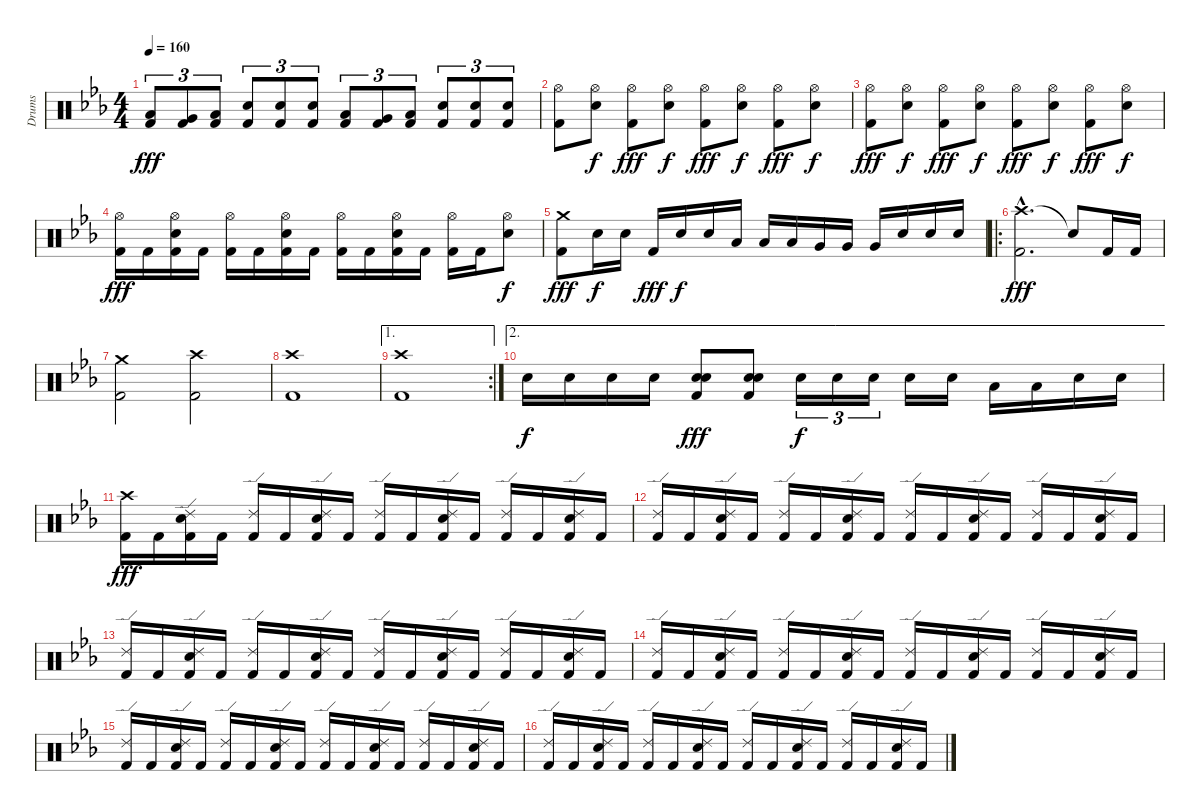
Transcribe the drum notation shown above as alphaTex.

\track ("Drums" "Drums") {instrument percussion}
\staff {score}
\articulation defaults
\ts (4 4)
\tempo 160
\clef neutral
\ks eb
("Low Tom (hit)" "Kick (hit) 2").8{tu (3 2) dy fff} ("Very Low Tom (hit)" "Kick (hit) 2").8{tu (3 2)} ("Low Floor Tom (hit)" "Kick (hit) 2").8{tu (3 2)} ("Electric Snare (hit)" "Kick (hit) 2").8{tu (3 2)} ("Electric Snare (hit)" "Kick (hit) 2").8{tu (3 2)} ("Electric Snare (hit)" "Kick (hit) 2").8{tu (3 2)} ("Low Tom (hit)" "Kick (hit) 2").8{tu (3 2)} ("Very Low Tom (hit)" "Kick (hit) 2").8{tu (3 2)} ("Low Floor Tom (hit)" "Kick (hit) 2").8{tu (3 2)} ("Electric Snare (hit)" "Kick (hit) 2").8{tu (3 2)} ("Electric Snare (hit)" "Kick (hit) 2").8{tu (3 2)} ("Electric Snare (hit)" "Kick (hit) 2").8{tu (3 2)} |
("Hi-Hat (open)" "Kick (hit) 2").8 ("Hi-Hat (open)" "Electric Snare (hit)").8{dy f} ("Hi-Hat (open)" "Kick (hit) 2").8{dy fff} ("Hi-Hat (open)" "Electric Snare (hit)").8{dy f} ("Hi-Hat (open)" "Kick (hit) 2").8{dy fff} ("Hi-Hat (open)" "Electric Snare (hit)").8{dy f} ("Hi-Hat (open)" "Kick (hit) 2").8{dy fff} ("Hi-Hat (open)" "Electric Snare (hit)").8{dy f} |
("Hi-Hat (open)" "Kick (hit) 2").8{dy fff} ("Hi-Hat (open)" "Electric Snare (hit)").8{dy f} ("Hi-Hat (open)" "Kick (hit) 2").8{dy fff} ("Hi-Hat (open)" "Electric Snare (hit)").8{dy f} ("Hi-Hat (open)" "Kick (hit) 2").8{dy fff} ("Hi-Hat (open)" "Electric Snare (hit)").8{dy f} ("Hi-Hat (open)" "Kick (hit) 2").8{dy fff} ("Hi-Hat (open)" "Electric Snare (hit)").8{dy f} |
("Hi-Hat (open)" "Kick (hit) 2").16{dy fff} "Kick (hit) 2".16 ("Hi-Hat (open)" "Electric Snare (hit)" "Kick (hit) 2").16 "Kick (hit) 2".16 ("Hi-Hat (open)" "Kick (hit) 2").16 "Kick (hit) 2".16 ("Hi-Hat (open)" "Electric Snare (hit)" "Kick (hit) 2").16 "Kick (hit) 2".16 ("Hi-Hat (open)" "Kick (hit) 2").16 "Kick (hit) 2".16 ("Hi-Hat (open)" "Electric Snare (hit)" "Kick (hit) 2").16 "Kick (hit) 2".16 ("Hi-Hat (open)" "Kick (hit) 2").16 "Kick (hit) 2".16 ("Hi-Hat (open)" "Electric Snare (hit)").8{dy f} |
("Crash medium (hit)" "Kick (hit) 2").8{dy fff} "Electric Snare (hit)".16{dy f} "Electric Snare (hit)".16 "Kick (hit) 2".16{dy fff} "Electric Snare (hit)".16{dy f} "Electric Snare (hit)".16 "Low Tom (hit)".16 "Low Tom (hit)".16 "Low Tom (hit)".16 "Very Low Tom (hit)".16 "Very Low Tom (hit)".16 "Very Low Tom (hit)".16 "Electric Snare (hit)".16 "Electric Snare (hit)".16 "Electric Snare (hit)".16 |
\ro
("Crash high (hit)"{hac} "Kick (hit) 2"{hac}).2{d dy fff} "Snare (hit)"{t}.8 "Kick (hit) 2".16 "Kick (hit) 2".16 |
("Crash medium (hit)" "Kick (hit) 2").2 ("Crash high (hit)" "Kick (hit) 2").2 |
("Crash high (hit)" "Kick (hit) 2").1 |
\ae 1
\rc 2
("Crash high (hit)" "Kick (hit) 2").1 |
\ae 2 "Electric Snare (hit)".16{dy f} "Electric Snare (hit)".16 "Electric Snare (hit)".16 "Electric Snare (hit)".16
("Snare (hit) 2" "Electric Snare (hit)" "Kick (hit) 2").8{dy fff} ("Snare (hit) 2" "Electric Snare (hit)" "Kick (hit) 2").8 "Electric Snare (hit)".16{tu (3 2) dy f} "Electric Snare (hit)".16{tu (3 2)} "Electric Snare (hit)".16{tu (3 2)} "Electric Snare (hit)".16 "Electric Snare (hit)".16 "Low Tom (hit)".16 "Low Tom (hit)".16 "Electric Snare (hit)".16 "Electric Snare (hit)".16 |
("Crash high (hit)" "Kick (hit) 2").16{dy fff} "Kick (hit) 2".16 ("Ride (edge) 2" "Electric Snare (hit)" "Kick (hit) 2").16 "Kick (hit) 2".16 ("Ride (edge) 2" "Kick (hit) 2").16 "Kick (hit) 2".16 ("Ride (edge) 2" "Electric Snare (hit)" "Kick (hit) 2").16 "Kick (hit) 2".16 ("Ride (edge) 2" "Kick (hit) 2").16 "Kick (hit) 2".16 ("Ride (edge) 2" "Electric Snare (hit)" "Kick (hit) 2").16 "Kick (hit) 2".16 ("Ride (edge) 2" "Kick (hit) 2").16 "Kick (hit) 2".16 ("Ride (edge) 2" "Electric Snare (hit)" "Kick (hit) 2").16 "Kick (hit) 2".16 |
("Ride (edge) 2" "Kick (hit) 2").16 "Kick (hit) 2".16 ("Ride (edge) 2" "Electric Snare (hit)" "Kick (hit) 2").16 "Kick (hit) 2".16 ("Ride (edge) 2" "Kick (hit) 2").16 "Kick (hit) 2".16 ("Ride (edge) 2" "Electric Snare (hit)" "Kick (hit) 2").16 "Kick (hit) 2".16 ("Ride (edge) 2" "Kick (hit) 2").16 "Kick (hit) 2".16 ("Ride (edge) 2" "Electric Snare (hit)" "Kick (hit) 2").16 "Kick (hit) 2".16 ("Ride (edge) 2" "Kick (hit) 2").16 "Kick (hit) 2".16 ("Ride (edge) 2" "Electric Snare (hit)" "Kick (hit) 2").16 "Kick (hit) 2".16 |
("Ride (edge) 2" "Kick (hit) 2").16 "Kick (hit) 2".16 ("Ride (edge) 2" "Electric Snare (hit)" "Kick (hit) 2").16 "Kick (hit) 2".16 ("Ride (edge) 2" "Kick (hit) 2").16 "Kick (hit) 2".16 ("Ride (edge) 2" "Electric Snare (hit)" "Kick (hit) 2").16 "Kick (hit) 2".16 ("Ride (edge) 2" "Kick (hit) 2").16 "Kick (hit) 2".16 ("Ride (edge) 2" "Electric Snare (hit)" "Kick (hit) 2").16 "Kick (hit) 2".16 ("Ride (edge) 2" "Kick (hit) 2").16 "Kick (hit) 2".16 ("Ride (edge) 2" "Electric Snare (hit)" "Kick (hit) 2").16 "Kick (hit) 2".16 |
("Ride (edge) 2" "Kick (hit) 2").16 "Kick (hit) 2".16 ("Ride (edge) 2" "Electric Snare (hit)" "Kick (hit) 2").16 "Kick (hit) 2".16 ("Ride (edge) 2" "Kick (hit) 2").16 "Kick (hit) 2".16 ("Ride (edge) 2" "Electric Snare (hit)" "Kick (hit) 2").16 "Kick (hit) 2".16 ("Ride (edge) 2" "Kick (hit) 2").16 "Kick (hit) 2".16 ("Ride (edge) 2" "Electric Snare (hit)" "Kick (hit) 2").16 "Kick (hit) 2".16 ("Ride (edge) 2" "Kick (hit) 2").16 "Kick (hit) 2".16 ("Ride (edge) 2" "Electric Snare (hit)" "Kick (hit) 2").16 "Kick (hit) 2".16 |
("Ride (edge) 2" "Kick (hit) 2").16 "Kick (hit) 2".16 ("Ride (edge) 2" "Electric Snare (hit)" "Kick (hit) 2").16 "Kick (hit) 2".16 ("Ride (edge) 2" "Kick (hit) 2").16 "Kick (hit) 2".16 ("Ride (edge) 2" "Electric Snare (hit)" "Kick (hit) 2").16 "Kick (hit) 2".16 ("Ride (edge) 2" "Kick (hit) 2").16 "Kick (hit) 2".16 ("Ride (edge) 2" "Electric Snare (hit)" "Kick (hit) 2").16 "Kick (hit) 2".16 ("Ride (edge) 2" "Kick (hit) 2").16 "Kick (hit) 2".16 ("Ride (edge) 2" "Electric Snare (hit)" "Kick (hit) 2").16 "Kick (hit) 2".16 |
("Ride (edge) 2" "Kick (hit) 2").16 "Kick (hit) 2".16 ("Ride (edge) 2" "Electric Snare (hit)" "Kick (hit) 2").16 "Kick (hit) 2".16 ("Ride (edge) 2" "Kick (hit) 2").16 "Kick (hit) 2".16 ("Ride (edge) 2" "Electric Snare (hit)" "Kick (hit) 2").16 "Kick (hit) 2".16 ("Ride (edge) 2" "Kick (hit) 2").16 "Kick (hit) 2".16 ("Ride (edge) 2" "Electric Snare (hit)" "Kick (hit) 2").16 "Kick (hit) 2".16 ("Ride (edge) 2" "Kick (hit) 2").16 "Kick (hit) 2".16 ("Ride (edge) 2" "Electric Snare (hit)" "Kick (hit) 2").16 "Kick (hit) 2".16
